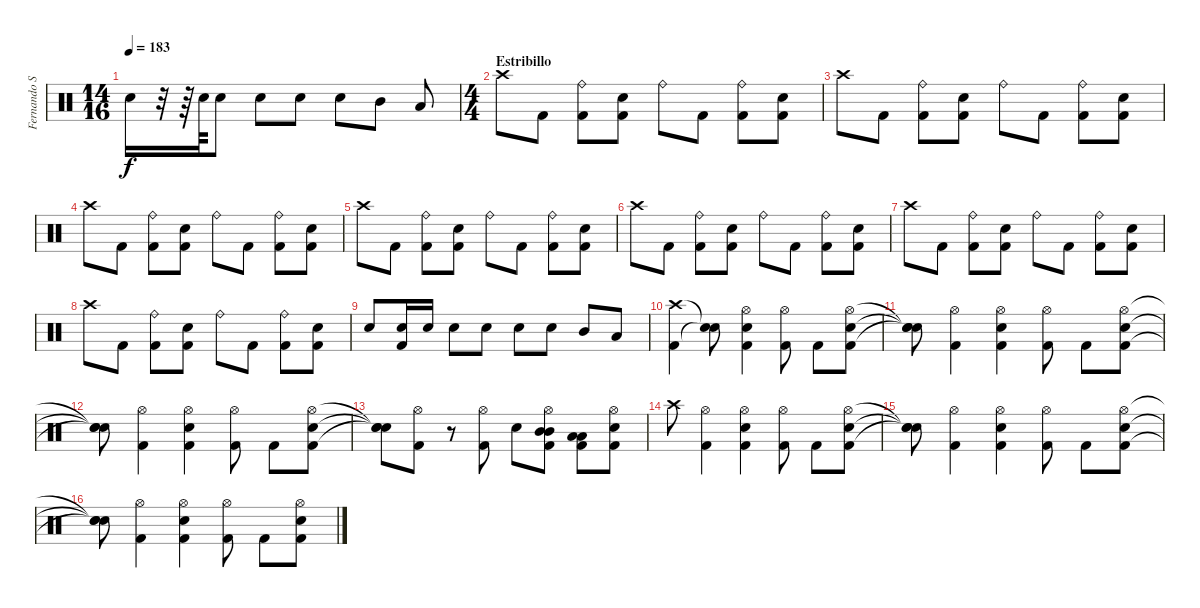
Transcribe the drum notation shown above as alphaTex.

\track ("Fernando Scarcella" "Fernando S") {instrument percussion}
\staff {score}
\articulation defaults
\ts (14 16)
\tempo 183
\clef neutral
\ks c "Snare (hit)"{t}.16{dy f}
r.32 r.64 "Snare (hit) 2".64 "Snare (hit) 2".8 "Snare (hit) 2".8 "Snare (hit) 2".8 "Snare (hit) 2".8 "Mid Tom (hit)".8 "Low Tom (hit)".8 |
\ts (4 4)
\section ("" "Estribillo")
"Crash high (hit)".8 "Kick (hit) 2".8 ("Kick (hit) 2" "Ride (bell)").8 ("Kick (hit) 2" "Snare (hit) 2").8 "Ride (bell)".8 "Kick (hit) 2".8 ("Kick (hit) 2" "Ride (bell)").8 ("Kick (hit) 2" "Snare (hit) 2").8 |
"Crash high (hit)".8 "Kick (hit) 2".8 ("Kick (hit) 2" "Ride (bell)").8 ("Kick (hit) 2" "Snare (hit) 2").8 "Ride (bell)".8 "Kick (hit) 2".8 ("Kick (hit) 2" "Ride (bell)").8 ("Kick (hit) 2" "Snare (hit) 2").8 |
"Crash high (hit)".8 "Kick (hit) 2".8 ("Kick (hit) 2" "Ride (bell)").8 ("Kick (hit) 2" "Snare (hit) 2").8 "Ride (bell)".8 "Kick (hit) 2".8 ("Kick (hit) 2" "Ride (bell)").8 ("Kick (hit) 2" "Snare (hit) 2").8 |
"Crash high (hit)".8 "Kick (hit) 2".8 ("Kick (hit) 2" "Ride (bell)").8 ("Kick (hit) 2" "Snare (hit) 2").8 "Ride (bell)".8 "Kick (hit) 2".8 ("Kick (hit) 2" "Ride (bell)").8 ("Kick (hit) 2" "Snare (hit) 2").8 |
"Crash high (hit)".8 "Kick (hit) 2".8 ("Kick (hit) 2" "Ride (bell)").8 ("Kick (hit) 2" "Snare (hit) 2").8 "Ride (bell)".8 "Kick (hit) 2".8 ("Kick (hit) 2" "Ride (bell)").8 ("Kick (hit) 2" "Snare (hit) 2").8 |
"Crash high (hit)".8 "Kick (hit) 2".8 ("Kick (hit) 2" "Ride (bell)").8 ("Kick (hit) 2" "Snare (hit) 2").8 "Ride (bell)".8 "Kick (hit) 2".8 ("Kick (hit) 2" "Ride (bell)").8 ("Kick (hit) 2" "Snare (hit) 2").8 |
"Crash high (hit)".8 "Kick (hit) 2".8 ("Kick (hit) 2" "Ride (bell)").8 ("Kick (hit) 2" "Snare (hit) 2").8 "Ride (bell)".8 "Kick (hit) 2".8 ("Kick (hit) 2" "Ride (bell)").8 ("Kick (hit) 2" "Snare (hit) 2").8 |
"Snare (hit) 2".8 ("Snare (hit) 2" "Kick (hit) 2").16 "Snare (hit) 2".16 "Snare (hit) 2".8 "Snare (hit) 2".8 "Snare (hit) 2".8 "Snare (hit) 2".8 "Mid Tom (hit)".8 "Low Tom (hit)".8 |
("Kick (hit) 2" "Crash high (hit)").4 ("Snare (hit)"{t} "Snare (hit)"{t}).8 ("Kick (hit) 2" "Snare (hit) 2" "Hi-Hat (open)").4 ("Kick (hit) 2" "Hi-Hat (open)").8 "Kick (hit) 2".8 ("Kick (hit) 2" "Snare (hit) 2" "Hi-Hat (open)").8 |
("Snare (hit)"{t} "Snare (hit)"{t} "Snare (hit)"{t}).8 ("Kick (hit) 2" "Hi-Hat (open)").4 ("Kick (hit) 2" "Snare (hit) 2" "Hi-Hat (open)").4 ("Kick (hit) 2" "Hi-Hat (open)").8 "Kick (hit) 2".8 ("Kick (hit) 2" "Snare (hit) 2" "Hi-Hat (open)").8 |
("Snare (hit)"{t} "Snare (hit)"{t} "Snare (hit)"{t}).8 ("Kick (hit) 2" "Hi-Hat (open)").4 ("Kick (hit) 2" "Snare (hit) 2" "Hi-Hat (open)").4 ("Kick (hit) 2" "Hi-Hat (open)").8 "Kick (hit) 2".8 ("Kick (hit) 2" "Snare (hit) 2" "Hi-Hat (open)").8 |
("Snare (hit)"{t} "Snare (hit)"{t} "Snare (hit)"{t}).8 ("Kick (hit) 2" "Hi-Hat (open)").8 r.8 ("Kick (hit) 2" "Hi-Hat (open)").8 "Snare (hit) 2".8 ("Mid Tom (hit)" "Hi-Hat (open)" "Mid Tom (hit)" "Kick (hit) 2").8 ("Kick (hit) 2" "Low Tom (hit)" "Low Tom (hit)").8 ("Kick (hit) 2" "Hi-Hat (open)" "Snare (hit) 2").8 |
"Crash high (hit)".8 ("Kick (hit) 2" "Hi-Hat (open)").4 ("Kick (hit) 2" "Snare (hit) 2" "Hi-Hat (open)").4 ("Kick (hit) 2" "Hi-Hat (open)").8 "Kick (hit) 2".8 ("Kick (hit) 2" "Snare (hit) 2" "Hi-Hat (open)").8 |
("Snare (hit)"{t} "Snare (hit)"{t} "Snare (hit)"{t}).8 ("Kick (hit) 2" "Hi-Hat (open)").4 ("Kick (hit) 2" "Snare (hit) 2" "Hi-Hat (open)").4 ("Kick (hit) 2" "Hi-Hat (open)").8 "Kick (hit) 2".8 ("Kick (hit) 2" "Snare (hit) 2" "Hi-Hat (open)").8 |
("Snare (hit)"{t} "Snare (hit)"{t} "Snare (hit)"{t}).8 ("Kick (hit) 2" "Hi-Hat (open)").4 ("Kick (hit) 2" "Snare (hit) 2" "Hi-Hat (open)").4 ("Kick (hit) 2" "Hi-Hat (open)").8 "Kick (hit) 2".8 ("Kick (hit) 2" "Snare (hit) 2" "Hi-Hat (open)").8
